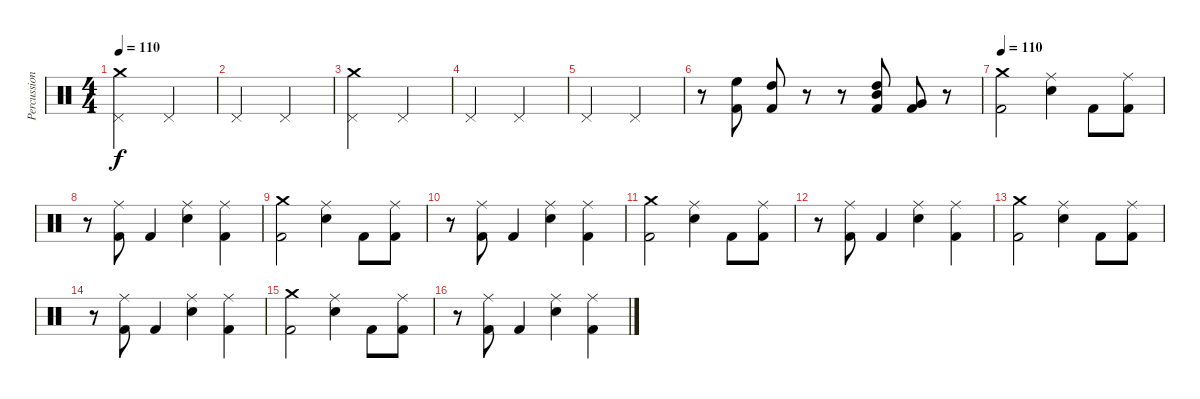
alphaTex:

\track ("Percussion" "Percussion") {instrument percussion}
\staff {score}
\articulation defaults
\ts (4 4)
\tempo 110
\clef neutral
\ks c
("Pedal Hi-Hat (hit)" "Crash medium (hit)").2{dy f} "Pedal Hi-Hat (hit)".2 |
"Pedal Hi-Hat (hit)".2 "Pedal Hi-Hat (hit)".2 |
("Pedal Hi-Hat (hit)" "Crash medium (hit)").2 "Pedal Hi-Hat (hit)".2 |
"Pedal Hi-Hat (hit)".2 "Pedal Hi-Hat (hit)".2 |
"Pedal Hi-Hat (hit)".2 "Pedal Hi-Hat (hit)".2 |
r.8 ("High Floor Tom (hit)" "Kick (hit) 2").8 ("High Tom (hit)" "Kick (hit) 2").8 r.8 r.8 ("High Tom (hit)" "Mid Tom (hit)" "Kick (hit) 2").8{bd 60} ("Very Low Tom (hit)" "Kick (hit) 2").8{bd 60} r.8 |
\tempo 110
("Crash medium (hit)" "Kick (hit) 2").2 ("Ride (middle)" "Electric Snare (hit)").4 "Kick (hit) 2".8 ("Ride (middle)" "Kick (hit) 2").8 |
r.8 ("Ride (middle)" "Kick (hit) 2").8 "Kick (hit) 2".4 ("Ride (middle)" "Electric Snare (hit)").4 ("Ride (middle)" "Kick (hit) 2").4 |
("Crash medium (hit)" "Kick (hit) 2").2 ("Ride (middle)" "Electric Snare (hit)").4 "Kick (hit) 2".8 ("Ride (middle)" "Kick (hit) 2").8 |
r.8 ("Ride (middle)" "Kick (hit) 2").8 "Kick (hit) 2".4 ("Ride (middle)" "Electric Snare (hit)").4 ("Ride (middle)" "Kick (hit) 2").4 |
("Crash medium (hit)" "Kick (hit) 2").2 ("Ride (middle)" "Electric Snare (hit)").4 "Kick (hit) 2".8 ("Ride (middle)" "Kick (hit) 2").8 |
r.8 ("Ride (middle)" "Kick (hit) 2").8 "Kick (hit) 2".4 ("Ride (middle)" "Electric Snare (hit)").4 ("Ride (middle)" "Kick (hit) 2").4 |
("Crash medium (hit)" "Kick (hit) 2").2 ("Ride (middle)" "Electric Snare (hit)").4 "Kick (hit) 2".8 ("Ride (middle)" "Kick (hit) 2").8 |
r.8 ("Ride (middle)" "Kick (hit) 2").8 "Kick (hit) 2".4 ("Ride (middle)" "Electric Snare (hit)").4 ("Ride (middle)" "Kick (hit) 2").4 |
("Crash medium (hit)" "Kick (hit) 2").2 ("Ride (middle)" "Electric Snare (hit)").4 "Kick (hit) 2".8 ("Ride (middle)" "Kick (hit) 2").8 |
r.8 ("Ride (middle)" "Kick (hit) 2").8 "Kick (hit) 2".4 ("Ride (middle)" "Electric Snare (hit)").4 ("Ride (middle)" "Kick (hit) 2").4
